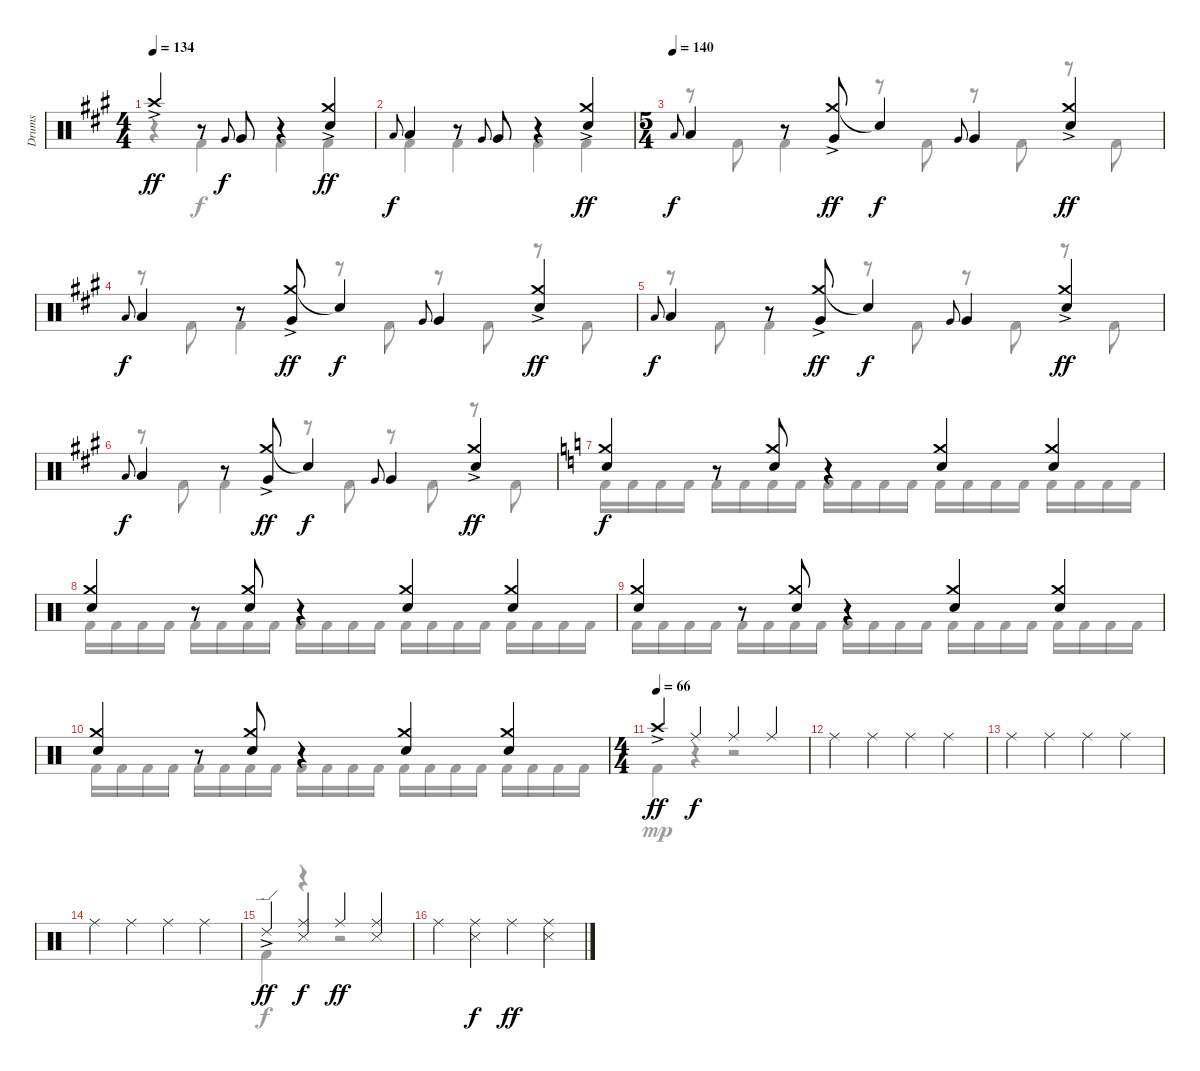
\track ("Drums" "Drums") {instrument percussion}
\staff {score}
\articulation defaults
\voice
\ts (4 4)
\tempo 134
\clef neutral
\ks a "Crash high (hit)"{ac}.4{dy ff}
r.8 "Very Low Tom (hit)".8{gr onbeat dy f} "Very Low Tom (hit)".8 r.4 ("Crash medium (hit)"{ac} "Electric Snare (hit)").4{dy ff} |
"Low Tom (hit)".8{gr onbeat dy f} "Low Tom (hit)".4 r.8 "Very Low Tom (hit)".8{gr onbeat} "Very Low Tom (hit)".8 r.4 ("Crash medium (hit)"{ac} "Electric Snare (hit)").4{dy ff} |
\ts (5 4)
\tempo (140)
"Low Tom (hit)".8{gr onbeat dy f} "Low Tom (hit)".4 r.8 ("Crash medium (hit)"{ac} "Very Low Tom (hit)").8{dy ff} "Snare (hit)"{t}.4{dy f} "Very Low Tom (hit)".8{gr onbeat} "Very Low Tom (hit)".4 ("Crash medium (hit)"{ac} "Electric Snare (hit)").4{dy ff} |
"Low Tom (hit)".8{gr onbeat dy f} "Low Tom (hit)".4 r.8 ("Crash medium (hit)"{ac} "Very Low Tom (hit)").8{dy ff} "Snare (hit)"{t}.4{dy f} "Very Low Tom (hit)".8{gr onbeat} "Very Low Tom (hit)".4 ("Crash medium (hit)"{ac} "Electric Snare (hit)").4{dy ff} |
"Low Tom (hit)".8{gr onbeat dy f} "Low Tom (hit)".4 r.8 ("Crash medium (hit)"{ac} "Very Low Tom (hit)").8{dy ff} "Snare (hit)"{t}.4{dy f} "Very Low Tom (hit)".8{gr onbeat} "Very Low Tom (hit)".4 ("Crash medium (hit)"{ac} "Electric Snare (hit)").4{dy ff} |
"Low Tom (hit)".8{gr onbeat dy f} "Low Tom (hit)".4 r.8 ("Crash medium (hit)"{ac} "Very Low Tom (hit)").8{dy ff} "Snare (hit)"{t}.4{dy f} "Very Low Tom (hit)".8{gr onbeat} "Very Low Tom (hit)".4 ("Crash medium (hit)"{ac} "Electric Snare (hit)").4{dy ff} |
\ks c
("Crash medium (hit)" "Electric Snare (hit)").4{dy f} r.8 ("Crash medium (hit)" "Electric Snare (hit)").8 r.4 ("Crash medium (hit)" "Electric Snare (hit)").4 ("Crash medium (hit)" "Electric Snare (hit)").4 |
("Crash medium (hit)" "Electric Snare (hit)").4 r.8 ("Crash medium (hit)" "Electric Snare (hit)").8 r.4 ("Crash medium (hit)" "Electric Snare (hit)").4 ("Crash medium (hit)" "Electric Snare (hit)").4 |
("Crash medium (hit)" "Electric Snare (hit)").4 r.8 ("Crash medium (hit)" "Electric Snare (hit)").8 r.4 ("Crash medium (hit)" "Electric Snare (hit)").4 ("Crash medium (hit)" "Electric Snare (hit)").4 |
("Crash medium (hit)" "Electric Snare (hit)").4 r.8 ("Crash medium (hit)" "Electric Snare (hit)").8 r.4 ("Crash medium (hit)" "Electric Snare (hit)").4 ("Crash medium (hit)" "Electric Snare (hit)").4 |
\ts (4 4)
\tempo (66)
"Crash high (hit)"{ac}.4{dy ff} "Ride (middle)".4{dy f} "Ride (middle)".4 "Ride (middle)".4 |
"Ride (middle)".4 "Ride (middle)".4 "Ride (middle)".4 "Ride (middle)".4 |
"Ride (middle)".4 "Ride (middle)".4 "Ride (middle)".4 "Ride (middle)".4 |
"Ride (middle)".4 "Ride (middle)".4 "Ride (middle)".4 "Ride (middle)".4 |
"Ride (edge) 2"{ac}.4{dy ff} ("Ride (middle)" "Snare (side stick) 3").4{dy f} "Ride (middle)".4{dy ff} ("Ride (middle)" "Snare (side stick) 3").4 |
"Ride (middle)".4 ("Ride (middle)" "Snare (side stick) 3").4{dy f} "Ride (middle)".4{dy ff} ("Ride (middle)" "Snare (side stick) 3").4
\voice
\clef neutral
\ottava regular
\simile none
\ks a
r.4{dy f} "Kick (hit) 2".4 "Kick (hit) 2".4 "Kick (hit) 2".4 |
"Kick (hit) 2".4 "Kick (hit) 2".4 "Kick (hit) 2".4 "Kick (hit) 2".4 |
r.8 "Kick (hit) 2".8 "Kick (hit) 2".4 r.8 "Kick (hit) 2".8 r.8 "Kick (hit) 2".8 r.8 "Kick (hit) 2".8 |
r.8 "Kick (hit) 2".8 "Kick (hit) 2".4 r.8 "Kick (hit) 2".8 r.8 "Kick (hit) 2".8 r.8 "Kick (hit) 2".8 |
r.8 "Kick (hit) 2".8 "Kick (hit) 2".4 r.8 "Kick (hit) 2".8 r.8 "Kick (hit) 2".8 r.8 "Kick (hit) 2".8 |
r.8 "Kick (hit) 2".8 "Kick (hit) 2".4 r.8 "Kick (hit) 2".8 r.8 "Kick (hit) 2".8 r.8 "Kick (hit) 2".8 |
\ks c "Kick (hit) 2".16 "Kick (hit) 2".16 "Kick (hit) 2".16 "Kick (hit) 2".16 "Kick (hit) 2".16 "Kick (hit) 2".16 "Kick (hit) 2".16 "Kick (hit) 2".16 "Kick (hit) 2".16 "Kick (hit) 2".16 "Kick (hit) 2".16 "Kick (hit) 2".16 "Kick (hit) 2".16 "Kick (hit) 2".16 "Kick (hit) 2".16 "Kick (hit) 2".16 "Kick (hit) 2".16 "Kick (hit) 2".16 "Kick (hit) 2".16 "Kick (hit) 2".16
|
"Kick (hit) 2".16 "Kick (hit) 2".16 "Kick (hit) 2".16 "Kick (hit) 2".16 "Kick (hit) 2".16 "Kick (hit) 2".16 "Kick (hit) 2".16 "Kick (hit) 2".16 "Kick (hit) 2".16 "Kick (hit) 2".16 "Kick (hit) 2".16 "Kick (hit) 2".16 "Kick (hit) 2".16 "Kick (hit) 2".16 "Kick (hit) 2".16 "Kick (hit) 2".16 "Kick (hit) 2".16 "Kick (hit) 2".16 "Kick (hit) 2".16 "Kick (hit) 2".16 |
"Kick (hit) 2".16 "Kick (hit) 2".16 "Kick (hit) 2".16 "Kick (hit) 2".16 "Kick (hit) 2".16 "Kick (hit) 2".16 "Kick (hit) 2".16 "Kick (hit) 2".16 "Kick (hit) 2".16 "Kick (hit) 2".16 "Kick (hit) 2".16 "Kick (hit) 2".16 "Kick (hit) 2".16 "Kick (hit) 2".16 "Kick (hit) 2".16 "Kick (hit) 2".16 "Kick (hit) 2".16 "Kick (hit) 2".16 "Kick (hit) 2".16 "Kick (hit) 2".16 |
"Kick (hit) 2".16 "Kick (hit) 2".16 "Kick (hit) 2".16 "Kick (hit) 2".16 "Kick (hit) 2".16 "Kick (hit) 2".16 "Kick (hit) 2".16 "Kick (hit) 2".16 "Kick (hit) 2".16 "Kick (hit) 2".16 "Kick (hit) 2".16 "Kick (hit) 2".16 "Kick (hit) 2".16 "Kick (hit) 2".16 "Kick (hit) 2".16 "Kick (hit) 2".16 "Kick (hit) 2".16 "Kick (hit) 2".16 "Kick (hit) 2".16 "Kick (hit) 2".16 |
"Kick (hit) 2".4{dy mp} r.4 r.2 |
|
|
|
"Kick (hit) 2".4{dy f} r.4 r.2 |
